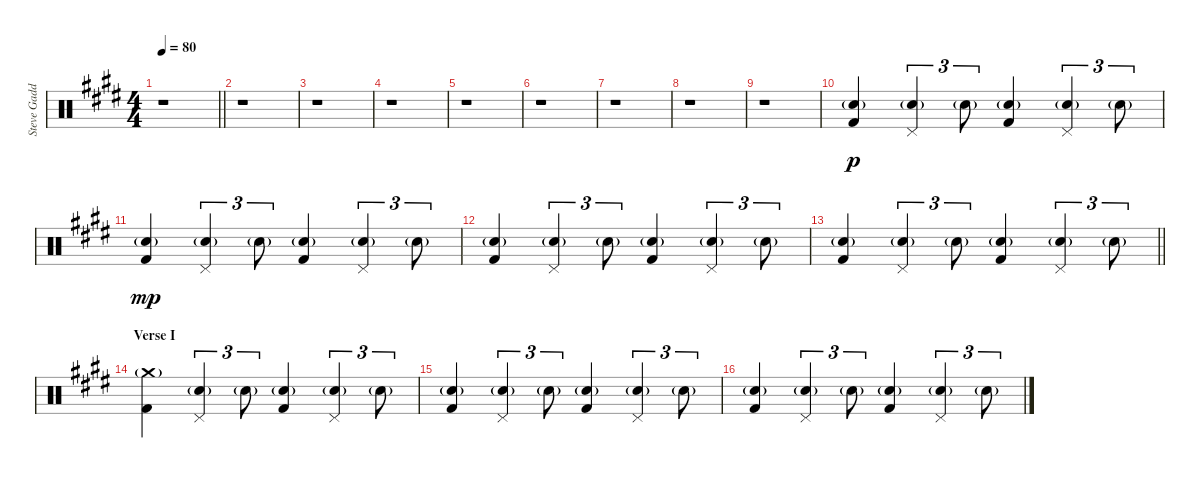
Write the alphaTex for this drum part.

\track ("Steve Gadd Drums" "Steve Gadd") {instrument percussion}
\staff {score}
\articulation defaults
\ts (4 4)
\tempo 80
\clef neutral
\barLineRight lightlight
\ks e
r.1{dy p} |
r.1 |
r.1 |
r.1 |
r.1 |
r.1 |
r.1 |
r.1 |
r.1 |
("Snare (hit) 2"{g} "Kick (hit) 2").4 ("Snare (hit) 2"{g} "Pedal Hi-Hat (hit)").4{tu (3 2)} "Snare (hit) 2"{g}.8{tu (3 2)} ("Snare (hit) 2"{g} "Kick (hit) 2").4 ("Snare (hit) 2"{g} "Pedal Hi-Hat (hit)").4{tu (3 2)} "Snare (hit) 2"{g}.8{tu (3 2)} |
("Snare (hit) 2"{g} "Kick (hit) 2").4{dy mp} ("Snare (hit) 2"{g} "Pedal Hi-Hat (hit)").4{tu (3 2)} "Snare (hit) 2"{g}.8{tu (3 2)} ("Snare (hit) 2"{g} "Kick (hit) 2").4 ("Snare (hit) 2"{g} "Pedal Hi-Hat (hit)").4{tu (3 2)} "Snare (hit) 2"{g}.8{tu (3 2)} |
("Snare (hit) 2"{g} "Kick (hit) 2").4 ("Snare (hit) 2"{g} "Pedal Hi-Hat (hit)").4{tu (3 2)} "Snare (hit) 2"{g}.8{tu (3 2)} ("Snare (hit) 2"{g} "Kick (hit) 2").4 ("Snare (hit) 2"{g} "Pedal Hi-Hat (hit)").4{tu (3 2)} "Snare (hit) 2"{g}.8{tu (3 2)} |
\barLineRight lightlight
("Snare (hit) 2"{g} "Kick (hit) 2").4 ("Snare (hit) 2"{g} "Pedal Hi-Hat (hit)").4{tu (3 2)} "Snare (hit) 2"{g}.8{tu (3 2)} ("Snare (hit) 2"{g} "Kick (hit) 2").4 ("Snare (hit) 2"{g} "Pedal Hi-Hat (hit)").4{tu (3 2)} "Snare (hit) 2"{g}.8{tu (3 2)} |
\section ("" "Verse I")
("Crash medium (hit)"{g} "Kick (hit) 2").4 ("Snare (hit) 2"{g} "Pedal Hi-Hat (hit)").4{tu (3 2)} "Snare (hit) 2"{g}.8{tu (3 2)} ("Snare (hit) 2"{g} "Kick (hit) 2").4 ("Snare (hit) 2"{g} "Pedal Hi-Hat (hit)").4{tu (3 2)} "Snare (hit) 2"{g}.8{tu (3 2)} |
("Snare (hit) 2"{g} "Kick (hit) 2").4 ("Snare (hit) 2"{g} "Pedal Hi-Hat (hit)").4{tu (3 2)} "Snare (hit) 2"{g}.8{tu (3 2)} ("Snare (hit) 2"{g} "Kick (hit) 2").4 ("Snare (hit) 2"{g} "Pedal Hi-Hat (hit)").4{tu (3 2)} "Snare (hit) 2"{g}.8{tu (3 2)} |
("Snare (hit) 2"{g} "Kick (hit) 2").4 ("Snare (hit) 2"{g} "Pedal Hi-Hat (hit)").4{tu (3 2)} "Snare (hit) 2"{g}.8{tu (3 2)} ("Snare (hit) 2"{g} "Kick (hit) 2").4 ("Snare (hit) 2"{g} "Pedal Hi-Hat (hit)").4{tu (3 2)} "Snare (hit) 2"{g}.8{tu (3 2)}
